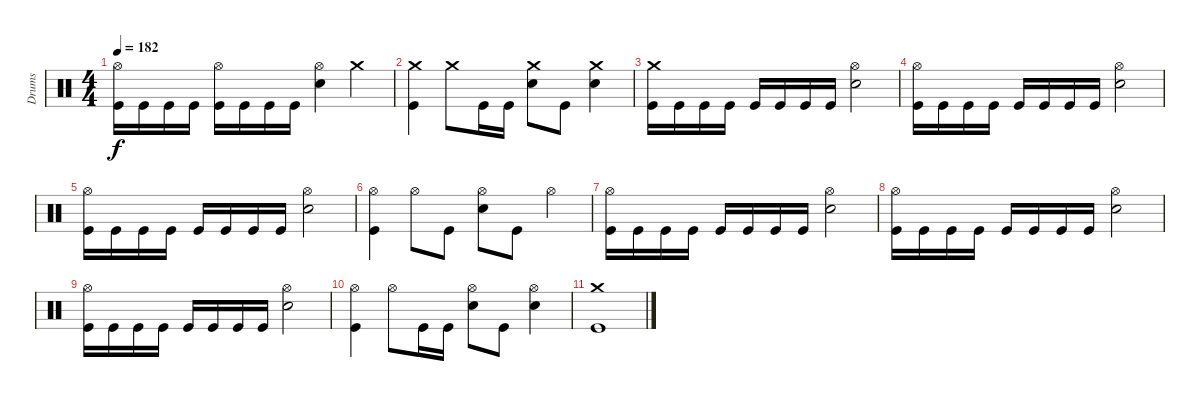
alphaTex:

\track ("Drums" "Drums") {instrument percussion}
\staff {score}
\articulation defaults
\ts (4 4)
\tempo 182
\clef neutral
\ks c
("Hi-Hat (open)" "Kick (hit)").16{dy f} "Kick (hit)".16 "Kick (hit)".16 "Kick (hit)".16 ("Hi-Hat (open)" "Kick (hit)").16 "Kick (hit)".16 "Kick (hit)".16 "Kick (hit)".16 ("Hi-Hat (open)" "Electric Snare (hit)").4 "Crash medium (hit)".4 |
("Crash medium (hit)" "Kick (hit)").4 "Crash medium (hit)".8 "Kick (hit)".16 "Kick (hit)".16 ("Crash medium (hit)" "Electric Snare (hit)").8 "Kick (hit)".8 ("Crash medium (hit)" "Electric Snare (hit)").4 |
("Crash medium (hit)" "Kick (hit)").16 "Kick (hit)".16 "Kick (hit)".16 "Kick (hit)".16 "Kick (hit)".16 "Kick (hit)".16 "Kick (hit)".16 "Kick (hit)".16 ("Hi-Hat (open)" "Electric Snare (hit)").2 |
("Hi-Hat (open)" "Kick (hit)").16 "Kick (hit)".16 "Kick (hit)".16 "Kick (hit)".16 "Kick (hit)".16 "Kick (hit)".16 "Kick (hit)".16 "Kick (hit)".16 ("Hi-Hat (open)" "Electric Snare (hit)").2 |
("Hi-Hat (open)" "Kick (hit)").16 "Kick (hit)".16 "Kick (hit)".16 "Kick (hit)".16 "Kick (hit)".16 "Kick (hit)".16 "Kick (hit)".16 "Kick (hit)".16 ("Hi-Hat (open)" "Electric Snare (hit)").2 |
("Hi-Hat (open)" "Kick (hit)").4 "Hi-Hat (open)".8 "Kick (hit)".8 ("Hi-Hat (open)" "Electric Snare (hit)").8 "Kick (hit)".8 "Hi-Hat (open)".4 |
("Hi-Hat (open)" "Kick (hit)").16 "Kick (hit)".16 "Kick (hit)".16 "Kick (hit)".16 "Kick (hit)".16 "Kick (hit)".16 "Kick (hit)".16 "Kick (hit)".16 ("Hi-Hat (open)" "Electric Snare (hit)").2 |
("Hi-Hat (open)" "Kick (hit)").16 "Kick (hit)".16 "Kick (hit)".16 "Kick (hit)".16 "Kick (hit)".16 "Kick (hit)".16 "Kick (hit)".16 "Kick (hit)".16 ("Hi-Hat (open)" "Electric Snare (hit)").2 |
("Hi-Hat (open)" "Kick (hit)").16 "Kick (hit)".16 "Kick (hit)".16 "Kick (hit)".16 "Kick (hit)".16 "Kick (hit)".16 "Kick (hit)".16 "Kick (hit)".16 ("Hi-Hat (open)" "Electric Snare (hit)").2 |
("Hi-Hat (open)" "Kick (hit)").4 "Hi-Hat (open)".8 "Kick (hit)".16 "Kick (hit)".16 ("Hi-Hat (open)" "Electric Snare (hit)").8 "Kick (hit)".8 ("Hi-Hat (open)" "Electric Snare (hit)").4 |
("Crash medium (hit)" "Kick (hit)").1
